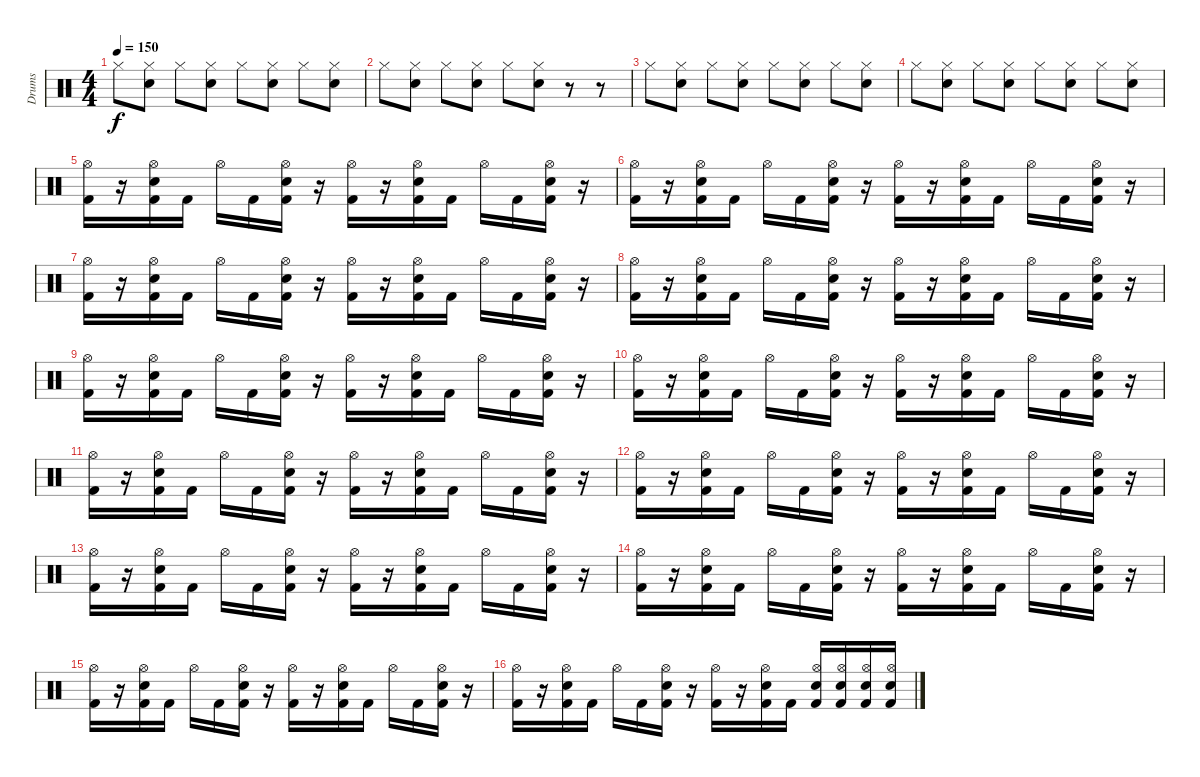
\track ("Drums" "Drums") {instrument percussion}
\staff {score}
\articulation defaults
\ts (4 4)
\tempo 150
\clef neutral
\ks c "Hi-Hat (closed)".8{dy f}
("Hi-Hat (closed)" "Electric Snare (hit)").8 "Hi-Hat (closed)".8 ("Hi-Hat (closed)" "Electric Snare (hit)").8 "Hi-Hat (closed)".8 ("Hi-Hat (closed)" "Electric Snare (hit)").8 "Hi-Hat (closed)".8 ("Hi-Hat (closed)" "Electric Snare (hit)").8 |
"Hi-Hat (closed)".8 ("Hi-Hat (closed)" "Electric Snare (hit)").8 "Hi-Hat (closed)".8 ("Hi-Hat (closed)" "Electric Snare (hit)").8 "Hi-Hat (closed)".8 ("Hi-Hat (closed)" "Electric Snare (hit)").8 r.8 r.8 |
"Hi-Hat (closed)".8 ("Hi-Hat (closed)" "Electric Snare (hit)").8 "Hi-Hat (closed)".8 ("Hi-Hat (closed)" "Electric Snare (hit)").8 "Hi-Hat (closed)".8 ("Hi-Hat (closed)" "Electric Snare (hit)").8 "Hi-Hat (closed)".8 ("Hi-Hat (closed)" "Electric Snare (hit)").8 |
"Hi-Hat (closed)".8 ("Hi-Hat (closed)" "Electric Snare (hit)").8 "Hi-Hat (closed)".8 ("Hi-Hat (closed)" "Electric Snare (hit)").8 "Hi-Hat (closed)".8 ("Hi-Hat (closed)" "Electric Snare (hit)").8 "Hi-Hat (closed)".8 ("Hi-Hat (closed)" "Electric Snare (hit)").8 |
("Hi-Hat (open)" "Kick (hit) 2").16 r.16 ("Hi-Hat (open)" "Electric Snare (hit)" "Kick (hit) 2").16 "Kick (hit) 2".16 "Hi-Hat (open)".16 "Kick (hit) 2".16 ("Hi-Hat (open)" "Electric Snare (hit)" "Kick (hit) 2").16 r.16 ("Hi-Hat (open)" "Kick (hit) 2").16 r.16 ("Hi-Hat (open)" "Electric Snare (hit)" "Kick (hit) 2").16 "Kick (hit) 2".16 "Hi-Hat (open)".16 "Kick (hit) 2".16 ("Hi-Hat (open)" "Electric Snare (hit)" "Kick (hit) 2").16 r.16 |
("Hi-Hat (open)" "Kick (hit) 2").16 r.16 ("Hi-Hat (open)" "Electric Snare (hit)" "Kick (hit) 2").16 "Kick (hit) 2".16 "Hi-Hat (open)".16 "Kick (hit) 2".16 ("Hi-Hat (open)" "Electric Snare (hit)" "Kick (hit) 2").16 r.16 ("Hi-Hat (open)" "Kick (hit) 2").16 r.16 ("Hi-Hat (open)" "Electric Snare (hit)" "Kick (hit) 2").16 "Kick (hit) 2".16 "Hi-Hat (open)".16 "Kick (hit) 2".16 ("Hi-Hat (open)" "Electric Snare (hit)" "Kick (hit) 2").16 r.16 |
("Hi-Hat (open)" "Kick (hit) 2").16 r.16 ("Hi-Hat (open)" "Electric Snare (hit)" "Kick (hit) 2").16 "Kick (hit) 2".16 "Hi-Hat (open)".16 "Kick (hit) 2".16 ("Hi-Hat (open)" "Electric Snare (hit)" "Kick (hit) 2").16 r.16 ("Hi-Hat (open)" "Kick (hit) 2").16 r.16 ("Hi-Hat (open)" "Electric Snare (hit)" "Kick (hit) 2").16 "Kick (hit) 2".16 "Hi-Hat (open)".16 "Kick (hit) 2".16 ("Hi-Hat (open)" "Electric Snare (hit)" "Kick (hit) 2").16 r.16 |
("Hi-Hat (open)" "Kick (hit) 2").16 r.16 ("Hi-Hat (open)" "Electric Snare (hit)" "Kick (hit) 2").16 "Kick (hit) 2".16 "Hi-Hat (open)".16 "Kick (hit) 2".16 ("Hi-Hat (open)" "Electric Snare (hit)" "Kick (hit) 2").16 r.16 ("Hi-Hat (open)" "Kick (hit) 2").16 r.16 ("Hi-Hat (open)" "Electric Snare (hit)" "Kick (hit) 2").16 "Kick (hit) 2".16 "Hi-Hat (open)".16 "Kick (hit) 2".16 ("Hi-Hat (open)" "Electric Snare (hit)" "Kick (hit) 2").16 r.16 |
("Hi-Hat (open)" "Kick (hit) 2").16 r.16 ("Hi-Hat (open)" "Electric Snare (hit)" "Kick (hit) 2").16 "Kick (hit) 2".16 "Hi-Hat (open)".16 "Kick (hit) 2".16 ("Hi-Hat (open)" "Electric Snare (hit)" "Kick (hit) 2").16 r.16 ("Hi-Hat (open)" "Kick (hit) 2").16 r.16 ("Hi-Hat (open)" "Electric Snare (hit)" "Kick (hit) 2").16 "Kick (hit) 2".16 "Hi-Hat (open)".16 "Kick (hit) 2".16 ("Hi-Hat (open)" "Electric Snare (hit)" "Kick (hit) 2").16 r.16 |
("Hi-Hat (open)" "Kick (hit) 2").16 r.16 ("Hi-Hat (open)" "Electric Snare (hit)" "Kick (hit) 2").16 "Kick (hit) 2".16 "Hi-Hat (open)".16 "Kick (hit) 2".16 ("Hi-Hat (open)" "Electric Snare (hit)" "Kick (hit) 2").16 r.16 ("Hi-Hat (open)" "Kick (hit) 2").16 r.16 ("Hi-Hat (open)" "Electric Snare (hit)" "Kick (hit) 2").16 "Kick (hit) 2".16 "Hi-Hat (open)".16 "Kick (hit) 2".16 ("Hi-Hat (open)" "Electric Snare (hit)" "Kick (hit) 2").16 r.16 |
("Hi-Hat (open)" "Kick (hit) 2").16 r.16 ("Hi-Hat (open)" "Electric Snare (hit)" "Kick (hit) 2").16 "Kick (hit) 2".16 "Hi-Hat (open)".16 "Kick (hit) 2".16 ("Hi-Hat (open)" "Electric Snare (hit)" "Kick (hit) 2").16 r.16 ("Hi-Hat (open)" "Kick (hit) 2").16 r.16 ("Hi-Hat (open)" "Electric Snare (hit)" "Kick (hit) 2").16 "Kick (hit) 2".16 "Hi-Hat (open)".16 "Kick (hit) 2".16 ("Hi-Hat (open)" "Electric Snare (hit)" "Kick (hit) 2").16 r.16 |
("Hi-Hat (open)" "Kick (hit) 2").16 r.16 ("Hi-Hat (open)" "Electric Snare (hit)" "Kick (hit) 2").16 "Kick (hit) 2".16 "Hi-Hat (open)".16 "Kick (hit) 2".16 ("Hi-Hat (open)" "Electric Snare (hit)" "Kick (hit) 2").16 r.16 ("Hi-Hat (open)" "Kick (hit) 2").16 r.16 ("Hi-Hat (open)" "Electric Snare (hit)" "Kick (hit) 2").16 "Kick (hit) 2".16 "Hi-Hat (open)".16 "Kick (hit) 2".16 ("Hi-Hat (open)" "Electric Snare (hit)" "Kick (hit) 2").16 r.16 |
("Hi-Hat (open)" "Kick (hit) 2").16 r.16 ("Hi-Hat (open)" "Electric Snare (hit)" "Kick (hit) 2").16 "Kick (hit) 2".16 "Hi-Hat (open)".16 "Kick (hit) 2".16 ("Hi-Hat (open)" "Electric Snare (hit)" "Kick (hit) 2").16 r.16 ("Hi-Hat (open)" "Kick (hit) 2").16 r.16 ("Hi-Hat (open)" "Electric Snare (hit)" "Kick (hit) 2").16 "Kick (hit) 2".16 "Hi-Hat (open)".16 "Kick (hit) 2".16 ("Hi-Hat (open)" "Electric Snare (hit)" "Kick (hit) 2").16 r.16 |
("Hi-Hat (open)" "Kick (hit) 2").16 r.16 ("Hi-Hat (open)" "Electric Snare (hit)" "Kick (hit) 2").16 "Kick (hit) 2".16 "Hi-Hat (open)".16 "Kick (hit) 2".16 ("Hi-Hat (open)" "Electric Snare (hit)" "Kick (hit) 2").16 r.16 ("Hi-Hat (open)" "Kick (hit) 2").16 r.16 ("Hi-Hat (open)" "Electric Snare (hit)" "Kick (hit) 2").16 "Kick (hit) 2".16 "Hi-Hat (open)".16 "Kick (hit) 2".16 ("Hi-Hat (open)" "Electric Snare (hit)" "Kick (hit) 2").16 r.16 |
("Hi-Hat (open)" "Kick (hit) 2").16 r.16 ("Hi-Hat (open)" "Electric Snare (hit)" "Kick (hit) 2").16 "Kick (hit) 2".16 "Hi-Hat (open)".16 "Kick (hit) 2".16 ("Hi-Hat (open)" "Electric Snare (hit)" "Kick (hit) 2").16 r.16 ("Hi-Hat (open)" "Kick (hit) 2").16 r.16 ("Hi-Hat (open)" "Electric Snare (hit)" "Kick (hit) 2").16 "Kick (hit) 2".16 "Hi-Hat (open)".16 "Kick (hit) 2".16 ("Hi-Hat (open)" "Electric Snare (hit)" "Kick (hit) 2").16 r.16 |
("Hi-Hat (open)" "Kick (hit) 2").16 r.16 ("Hi-Hat (open)" "Electric Snare (hit)" "Kick (hit) 2").16 "Kick (hit) 2".16 "Hi-Hat (open)".16 "Kick (hit) 2".16 ("Hi-Hat (open)" "Electric Snare (hit)" "Kick (hit) 2").16 r.16 ("Hi-Hat (open)" "Kick (hit) 2").16 r.16 ("Hi-Hat (open)" "Electric Snare (hit)" "Kick (hit) 2").16 "Kick (hit) 2".16 ("Hi-Hat (open)" "Electric Snare (hit)" "Kick (hit) 2").16 ("Hi-Hat (open)" "Electric Snare (hit)" "Kick (hit) 2").16 ("Hi-Hat (open)" "Electric Snare (hit)" "Kick (hit) 2").16 ("Hi-Hat (open)" "Electric Snare (hit)" "Kick (hit) 2").16
